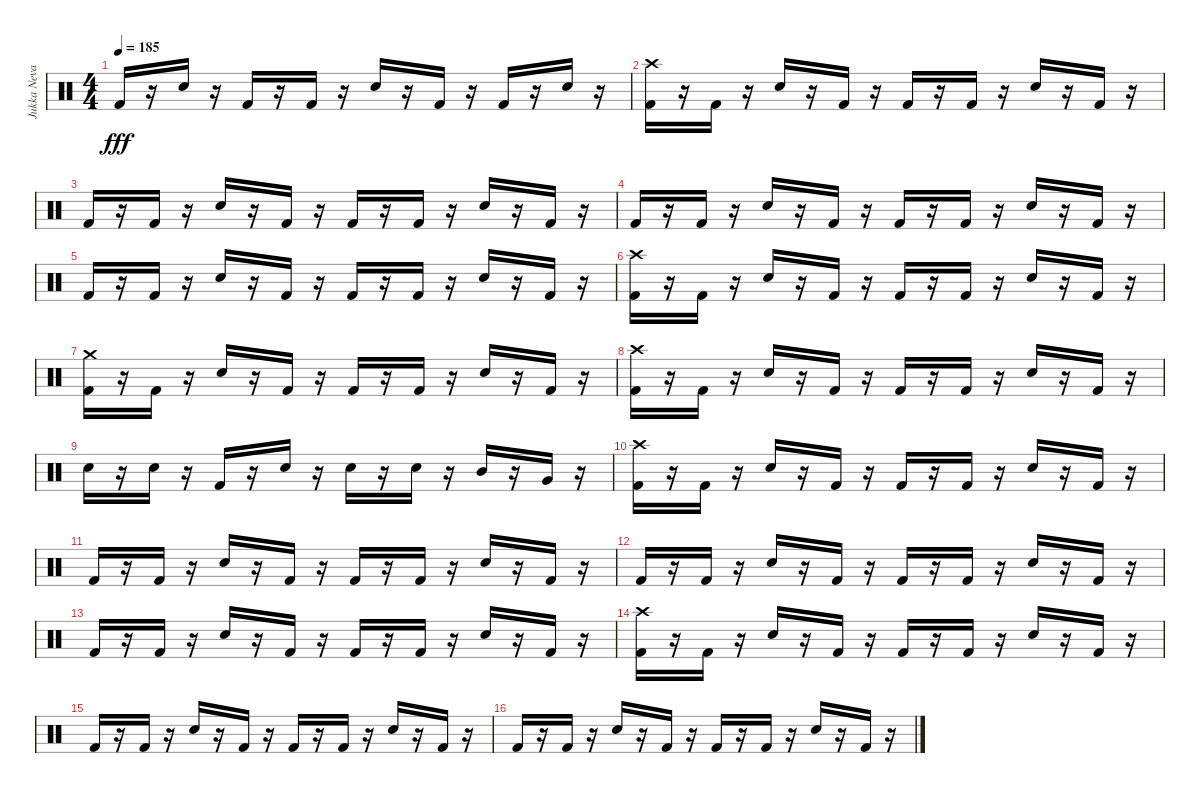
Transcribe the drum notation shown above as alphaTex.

\track ("Jukka Nevalinen" "Jukka Neva") {instrument percussion}
\staff {score}
\articulation defaults
\ts (4 4)
\tempo 185
\clef neutral
\ks c "Kick (hit) 2".16{dy fff}
r.16 "Snare (hit) 2".16 r.16 "Kick (hit) 2".16 r.16 "Kick (hit) 2".16 r.16 "Snare (hit) 2".16 r.16 "Kick (hit) 2".16 r.16 "Kick (hit) 2".16 r.16 "Snare (hit) 2".16 r.16 |
("Kick (hit) 2" "Crash high (hit)").16 r.16 "Kick (hit) 2".16 r.16 "Snare (hit) 2".16 r.16 "Kick (hit) 2".16 r.16 "Kick (hit) 2".16 r.16 "Kick (hit) 2".16 r.16 "Snare (hit) 2".16 r.16 "Kick (hit) 2".16 r.16 |
"Kick (hit) 2".16 r.16 "Kick (hit) 2".16 r.16 "Snare (hit) 2".16 r.16 "Kick (hit) 2".16 r.16 "Kick (hit) 2".16 r.16 "Kick (hit) 2".16 r.16 "Snare (hit) 2".16 r.16 "Kick (hit) 2".16 r.16 |
"Kick (hit) 2".16 r.16 "Kick (hit) 2".16 r.16 "Snare (hit) 2".16 r.16 "Kick (hit) 2".16 r.16 "Kick (hit) 2".16 r.16 "Kick (hit) 2".16 r.16 "Snare (hit) 2".16 r.16 "Kick (hit) 2".16 r.16 |
"Kick (hit) 2".16 r.16 "Kick (hit) 2".16 r.16 "Snare (hit) 2".16 r.16 "Kick (hit) 2".16 r.16 "Kick (hit) 2".16 r.16 "Kick (hit) 2".16 r.16 "Snare (hit) 2".16 r.16 "Kick (hit) 2".16 r.16 |
("Kick (hit) 2" "Crash high (hit)").16 r.16 "Kick (hit) 2".16 r.16 "Snare (hit) 2".16 r.16 "Kick (hit) 2".16 r.16 "Kick (hit) 2".16 r.16 "Kick (hit) 2".16 r.16 "Snare (hit) 2".16 r.16 "Kick (hit) 2".16 r.16 |
("Kick (hit) 2" "Crash medium (hit)").16 r.16 "Kick (hit) 2".16 r.16 "Snare (hit) 2".16 r.16 "Kick (hit) 2".16 r.16 "Kick (hit) 2".16 r.16 "Kick (hit) 2".16 r.16 "Snare (hit) 2".16 r.16 "Kick (hit) 2".16 r.16 |
("Kick (hit) 2" "Crash high (hit)").16 r.16 "Kick (hit) 2".16 r.16 "Snare (hit) 2".16 r.16 "Kick (hit) 2".16 r.16 "Kick (hit) 2".16 r.16 "Kick (hit) 2".16 r.16 "Snare (hit) 2".16 r.16 "Kick (hit) 2".16 r.16 |
"Snare (hit) 2".16 r.16 "Snare (hit) 2".16 r.16 "Kick (hit) 2".16 r.16 "Snare (hit) 2".16 r.16 "Snare (hit) 2".16 r.16 "Snare (hit) 2".16 r.16 "Mid Tom (hit)".16 r.16 "Very Low Tom (hit)".16 r.16 |
("Kick (hit) 2" "Crash high (hit)").16 r.16 "Kick (hit) 2".16 r.16 "Snare (hit) 2".16 r.16 "Kick (hit) 2".16 r.16 "Kick (hit) 2".16 r.16 "Kick (hit) 2".16 r.16 "Snare (hit) 2".16 r.16 "Kick (hit) 2".16 r.16 |
"Kick (hit) 2".16 r.16 "Kick (hit) 2".16 r.16 "Snare (hit) 2".16 r.16 "Kick (hit) 2".16 r.16 "Kick (hit) 2".16 r.16 "Kick (hit) 2".16 r.16 "Snare (hit) 2".16 r.16 "Kick (hit) 2".16 r.16 |
"Kick (hit) 2".16 r.16 "Kick (hit) 2".16 r.16 "Snare (hit) 2".16 r.16 "Kick (hit) 2".16 r.16 "Kick (hit) 2".16 r.16 "Kick (hit) 2".16 r.16 "Snare (hit) 2".16 r.16 "Kick (hit) 2".16 r.16 |
"Kick (hit) 2".16 r.16 "Kick (hit) 2".16 r.16 "Snare (hit) 2".16 r.16 "Kick (hit) 2".16 r.16 "Kick (hit) 2".16 r.16 "Kick (hit) 2".16 r.16 "Snare (hit) 2".16 r.16 "Kick (hit) 2".16 r.16 |
("Kick (hit) 2" "Crash high (hit)").16 r.16 "Kick (hit) 2".16 r.16 "Snare (hit) 2".16 r.16 "Kick (hit) 2".16 r.16 "Kick (hit) 2".16 r.16 "Kick (hit) 2".16 r.16 "Snare (hit) 2".16 r.16 "Kick (hit) 2".16 r.16 |
"Kick (hit) 2".16 r.16 "Kick (hit) 2".16 r.16 "Snare (hit) 2".16 r.16 "Kick (hit) 2".16 r.16 "Kick (hit) 2".16 r.16 "Kick (hit) 2".16 r.16 "Snare (hit) 2".16 r.16 "Kick (hit) 2".16 r.16 |
"Kick (hit) 2".16 r.16 "Kick (hit) 2".16 r.16 "Snare (hit) 2".16 r.16 "Kick (hit) 2".16 r.16 "Kick (hit) 2".16 r.16 "Kick (hit) 2".16 r.16 "Snare (hit) 2".16 r.16 "Kick (hit) 2".16 r.16
